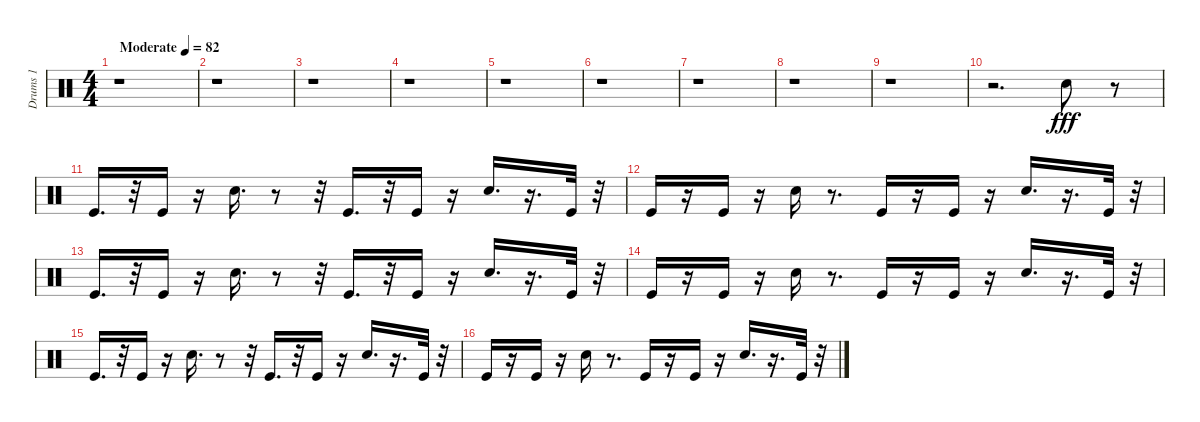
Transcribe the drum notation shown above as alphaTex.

\track ("Drums 1" "Drums 1") {instrument percussion}
\staff {score}
\articulation defaults
\ts (4 4)
\tempo (82 "Moderate")
\clef neutral
\ks c
r.1{dy fff} |
r.1 |
r.1 |
r.1 |
r.1 |
r.1 |
r.1 |
r.1 |
r.1 |
r.2{d} "Electric Snare (hit)".8 r.8 |
"Kick (hit)".16{d} r.32 "Kick (hit)".16 r.16 "Electric Snare (hit)".16{d} r.8 r.32 "Kick (hit)".16{d} r.32 "Kick (hit)".16 r.16 "Electric Snare (hit)".16{d} r.16{d} "Kick (hit)".32 r.32 |
"Kick (hit)".16 r.16 "Kick (hit)".16 r.16 "Electric Snare (hit)".16 r.8{d} "Kick (hit)".16 r.16 "Kick (hit)".16 r.16 "Electric Snare (hit)".16{d} r.16{d} "Kick (hit)".32 r.32 |
"Kick (hit)".16{d} r.32 "Kick (hit)".16 r.16 "Electric Snare (hit)".16{d} r.8 r.32 "Kick (hit)".16{d} r.32 "Kick (hit)".16 r.16 "Electric Snare (hit)".16{d} r.16{d} "Kick (hit)".32 r.32 |
"Kick (hit)".16 r.16 "Kick (hit)".16 r.16 "Electric Snare (hit)".16 r.8{d} "Kick (hit)".16 r.16 "Kick (hit)".16 r.16 "Electric Snare (hit)".16{d} r.16{d} "Kick (hit)".32 r.32 |
"Kick (hit)".16{d} r.32 "Kick (hit)".16 r.16 "Electric Snare (hit)".16{d} r.8 r.32 "Kick (hit)".16{d} r.32 "Kick (hit)".16 r.16 "Electric Snare (hit)".16{d} r.16{d} "Kick (hit)".32 r.32 |
"Kick (hit)".16 r.16 "Kick (hit)".16 r.16 "Electric Snare (hit)".16 r.8{d} "Kick (hit)".16 r.16 "Kick (hit)".16 r.16 "Electric Snare (hit)".16{d} r.16{d} "Kick (hit)".32 r.32
